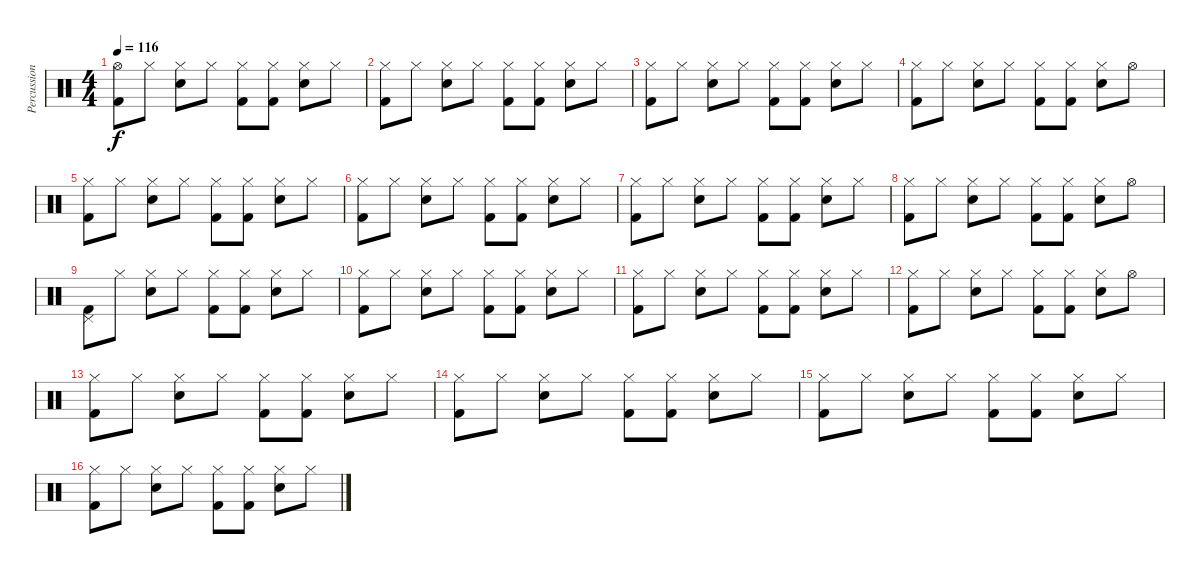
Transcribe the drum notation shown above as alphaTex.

\track ("Percussion" "Percussion") {instrument percussion}
\staff {score}
\articulation defaults
\ts (4 4)
\tempo 116
\clef neutral
\ks c
("Hi-Hat (open)" "Kick (hit) 2").8{dy f} "Hi-Hat (closed)".8 ("Hi-Hat (closed)" "Snare (hit) 2").8 "Hi-Hat (closed)".8 ("Hi-Hat (closed)" "Kick (hit) 2").8 ("Hi-Hat (closed)" "Kick (hit) 2").8 ("Hi-Hat (closed)" "Snare (hit) 2").8 "Hi-Hat (closed)".8 |
("Hi-Hat (closed)" "Kick (hit) 2").8 "Hi-Hat (closed)".8 ("Hi-Hat (closed)" "Snare (hit) 2").8 "Hi-Hat (closed)".8 ("Hi-Hat (closed)" "Kick (hit) 2").8 ("Hi-Hat (closed)" "Kick (hit) 2").8 ("Hi-Hat (closed)" "Snare (hit) 2").8 "Hi-Hat (closed)".8 |
("Hi-Hat (closed)" "Kick (hit) 2").8 "Hi-Hat (closed)".8 ("Hi-Hat (closed)" "Snare (hit) 2").8 "Hi-Hat (closed)".8 ("Hi-Hat (closed)" "Kick (hit) 2").8 ("Hi-Hat (closed)" "Kick (hit) 2").8 ("Hi-Hat (closed)" "Snare (hit) 2").8 "Hi-Hat (closed)".8 |
("Hi-Hat (closed)" "Kick (hit) 2").8 "Hi-Hat (closed)".8 ("Hi-Hat (closed)" "Snare (hit) 2").8 "Hi-Hat (closed)".8 ("Hi-Hat (closed)" "Kick (hit) 2").8 ("Hi-Hat (closed)" "Kick (hit) 2").8 ("Hi-Hat (closed)" "Snare (hit) 2").8 "Hi-Hat (open)".8 |
("Hi-Hat (closed)" "Kick (hit) 2").8 "Hi-Hat (closed)".8 ("Hi-Hat (closed)" "Snare (hit) 2").8 "Hi-Hat (closed)".8 ("Hi-Hat (closed)" "Kick (hit) 2").8 ("Hi-Hat (closed)" "Kick (hit) 2").8 ("Hi-Hat (closed)" "Snare (hit) 2").8 "Hi-Hat (closed)".8 |
("Hi-Hat (closed)" "Kick (hit) 2").8 "Hi-Hat (closed)".8 ("Hi-Hat (closed)" "Snare (hit) 2").8 "Hi-Hat (closed)".8 ("Hi-Hat (closed)" "Kick (hit) 2").8 ("Hi-Hat (closed)" "Kick (hit) 2").8 ("Hi-Hat (closed)" "Snare (hit) 2").8 "Hi-Hat (closed)".8 |
("Hi-Hat (closed)" "Kick (hit) 2").8 "Hi-Hat (closed)".8 ("Hi-Hat (closed)" "Snare (hit) 2").8 "Hi-Hat (closed)".8 ("Hi-Hat (closed)" "Kick (hit) 2").8 ("Hi-Hat (closed)" "Kick (hit) 2").8 ("Hi-Hat (closed)" "Snare (hit) 2").8 "Hi-Hat (closed)".8 |
("Hi-Hat (closed)" "Kick (hit) 2").8 "Hi-Hat (closed)".8 ("Hi-Hat (closed)" "Snare (hit) 2").8 "Hi-Hat (closed)".8 ("Hi-Hat (closed)" "Kick (hit) 2").8 ("Hi-Hat (closed)" "Kick (hit) 2").8 ("Hi-Hat (closed)" "Snare (hit) 2").8 "Hi-Hat (open)".8 |
("Pedal Hi-Hat (hit)" "Kick (hit) 2").8 "Hi-Hat (closed)".8 ("Hi-Hat (closed)" "Snare (hit) 2").8 "Hi-Hat (closed)".8 ("Hi-Hat (closed)" "Kick (hit) 2").8 ("Hi-Hat (closed)" "Kick (hit) 2").8 ("Hi-Hat (closed)" "Snare (hit) 2").8 "Hi-Hat (closed)".8 |
("Hi-Hat (closed)" "Kick (hit) 2").8 "Hi-Hat (closed)".8 ("Hi-Hat (closed)" "Snare (hit) 2").8 "Hi-Hat (closed)".8 ("Hi-Hat (closed)" "Kick (hit) 2").8 ("Hi-Hat (closed)" "Kick (hit) 2").8 ("Hi-Hat (closed)" "Snare (hit) 2").8 "Hi-Hat (closed)".8 |
("Hi-Hat (closed)" "Kick (hit) 2").8 "Hi-Hat (closed)".8 ("Hi-Hat (closed)" "Snare (hit) 2").8 "Hi-Hat (closed)".8 ("Hi-Hat (closed)" "Kick (hit) 2").8 ("Hi-Hat (closed)" "Kick (hit) 2").8 ("Hi-Hat (closed)" "Snare (hit) 2").8 "Hi-Hat (closed)".8 |
("Hi-Hat (closed)" "Kick (hit) 2").8 "Hi-Hat (closed)".8 ("Hi-Hat (closed)" "Snare (hit) 2").8 "Hi-Hat (closed)".8 ("Hi-Hat (closed)" "Kick (hit) 2").8 ("Hi-Hat (closed)" "Kick (hit) 2").8 ("Hi-Hat (closed)" "Snare (hit) 2").8 "Hi-Hat (open)".8 |
("Hi-Hat (closed)" "Kick (hit) 2").8 "Hi-Hat (closed)".8 ("Hi-Hat (closed)" "Snare (hit) 2").8 "Hi-Hat (closed)".8 ("Hi-Hat (closed)" "Kick (hit) 2").8 ("Hi-Hat (closed)" "Kick (hit) 2").8 ("Hi-Hat (closed)" "Snare (hit) 2").8 "Hi-Hat (closed)".8 |
("Hi-Hat (closed)" "Kick (hit) 2").8 "Hi-Hat (closed)".8 ("Hi-Hat (closed)" "Snare (hit) 2").8 "Hi-Hat (closed)".8 ("Hi-Hat (closed)" "Kick (hit) 2").8 ("Hi-Hat (closed)" "Kick (hit) 2").8 ("Hi-Hat (closed)" "Snare (hit) 2").8 "Hi-Hat (closed)".8 |
("Hi-Hat (closed)" "Kick (hit) 2").8 "Hi-Hat (closed)".8 ("Hi-Hat (closed)" "Snare (hit) 2").8 "Hi-Hat (closed)".8 ("Hi-Hat (closed)" "Kick (hit) 2").8 ("Hi-Hat (closed)" "Kick (hit) 2").8 ("Hi-Hat (closed)" "Snare (hit) 2").8 "Hi-Hat (closed)".8 |
("Hi-Hat (closed)" "Kick (hit) 2").8 "Hi-Hat (closed)".8 ("Hi-Hat (closed)" "Snare (hit) 2").8 "Hi-Hat (closed)".8 ("Hi-Hat (closed)" "Kick (hit) 2").8 ("Hi-Hat (closed)" "Kick (hit) 2").8 ("Hi-Hat (closed)" "Snare (hit) 2").8 "Hi-Hat (closed)".8
